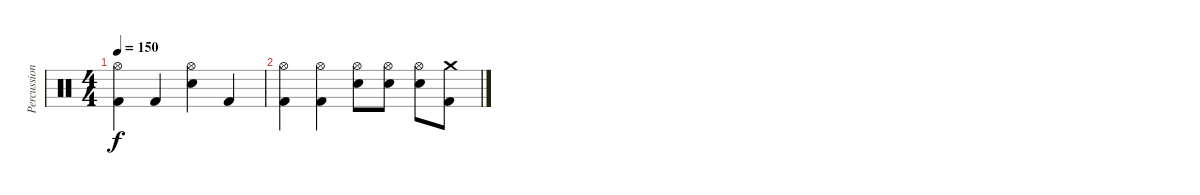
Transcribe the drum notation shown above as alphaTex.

\track ("Percussion" "Percussion") {instrument percussion}
\staff {score}
\articulation defaults
\ts (4 4)
\tempo 150
\clef neutral
\ks c
("Hi-Hat (open)" "Kick (hit) 2").4{dy f} "Kick (hit) 2".4 ("Hi-Hat (open)" "Electric Snare (hit)").4 "Kick (hit) 2".4 |
("Hi-Hat (open)" "Kick (hit) 2").4 ("Hi-Hat (open)" "Kick (hit) 2").4 ("Hi-Hat (open)" "Electric Snare (hit)").8 ("Hi-Hat (open)" "Electric Snare (hit)").8 ("Hi-Hat (open)" "Electric Snare (hit)").8 ("Crash medium (hit)" "Kick (hit) 2").8
